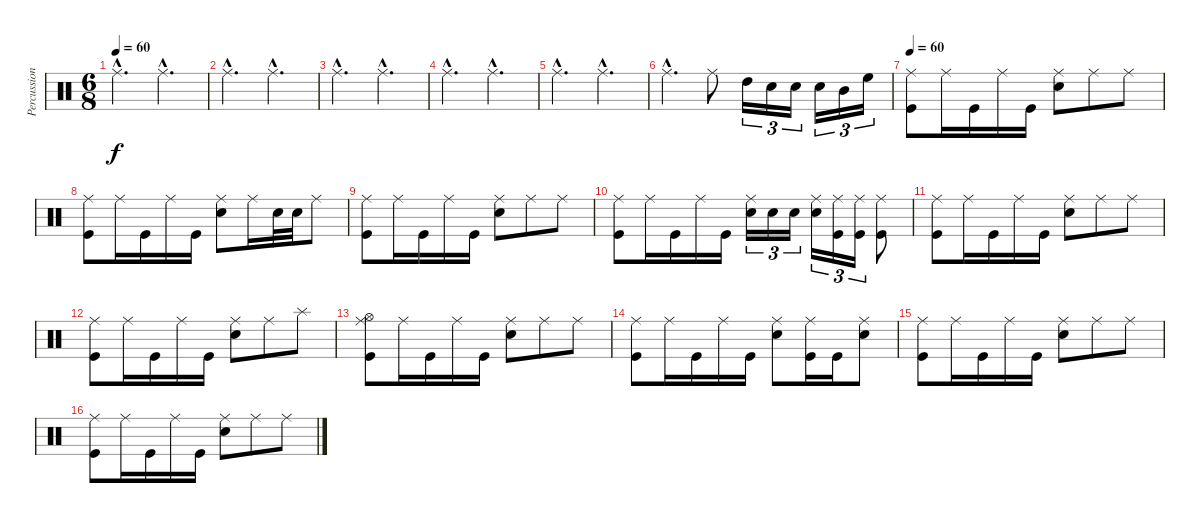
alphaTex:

\track ("Percussions" "Percussion") {instrument percussion}
\staff {score}
\articulation defaults
\ts (6 8)
\tempo 60
\clef neutral
\ks c "Ride (middle)"{hac}.4{d dy f} "Ride (middle)"{hac}.4{d}
|
"Ride (middle)"{hac}.4{d} "Ride (middle)"{hac}.4{d} |
"Ride (middle)"{hac}.4{d} "Ride (middle)"{hac}.4{d} |
"Ride (middle)"{hac}.4{d} "Ride (middle)"{hac}.4{d} |
"Ride (middle)"{hac}.4{d} "Ride (middle)"{hac}.4{d} |
"Ride (middle)"{hac}.4{d} "Ride (middle)".8 "High Tom (hit)".16{tu (3 2)} "Snare (hit) 2".16{tu (3 2)} "Snare (hit) 2".16{tu (3 2)} "Snare (hit) 2".16{tu (3 2)} "Mid Tom (hit)".16{tu (3 2)} "High Floor Tom (hit)".16{tu (3 2)} |
\tempo 60
("Ride (middle)" "Kick (hit)").8 "Ride (middle)".16 "Kick (hit)".16 "Ride (middle)".16 "Kick (hit)".16 ("Ride (middle)" "Snare (hit) 2").8 "Ride (middle)".8 "Ride (middle)".8 |
("Ride (middle)" "Kick (hit)").8 "Ride (middle)".16 "Kick (hit)".16 "Ride (middle)".16 "Kick (hit)".16 ("Ride (middle)" "Snare (hit) 2").8 "Ride (middle)".16 "Snare (hit) 2".32 "Snare (hit) 2".32 "Ride (middle)".8 |
("Ride (middle)" "Kick (hit)").8 "Ride (middle)".16 "Kick (hit)".16 "Ride (middle)".16 "Kick (hit)".16 ("Ride (middle)" "Snare (hit) 2").8 "Ride (middle)".8 "Ride (middle)".8 |
("Ride (middle)" "Kick (hit)").8 "Ride (middle)".16 "Kick (hit)".16 "Ride (middle)".16 "Kick (hit)".16 ("Ride (middle)" "Snare (hit) 2").16{tu (3 2)} "Snare (hit) 2".16{tu (3 2)} "Snare (hit) 2".16{tu (3 2)} ("Ride (middle)" "Snare (hit) 2").16{tu (3 2)} ("Ride (middle)" "Kick (hit)").16{tu (3 2)} ("Ride (middle)" "Kick (hit)").16{tu (3 2)} ("Ride (middle)" "Kick (hit)").8 |
("Ride (middle)" "Kick (hit)").8 "Ride (middle)".16 "Kick (hit)".16 "Ride (middle)".16 "Kick (hit)".16 ("Ride (middle)" "Snare (hit) 2").8 "Ride (middle)".8 "Ride (middle)".8 |
("Ride (middle)" "Kick (hit)").8 "Ride (middle)".16 "Kick (hit)".16 "Ride (middle)".16 "Kick (hit)".16 ("Ride (middle)" "Snare (hit) 2").8 "Ride (middle)".8 "Splash (hit)".8 |
("Hi-Hat (open)" "Ride (middle)" "Kick (hit)").8 "Ride (middle)".16 "Kick (hit)".16 "Ride (middle)".16 "Kick (hit)".16 ("Ride (middle)" "Snare (hit) 2").8 "Ride (middle)".8 "Ride (middle)".8 |
("Ride (middle)" "Kick (hit)").8 "Ride (middle)".16 "Kick (hit)".16 "Ride (middle)".16 "Kick (hit)".16 ("Ride (middle)" "Snare (hit) 2").8 ("Ride (middle)" "Kick (hit)").16 "Kick (hit)".16 ("Ride (middle)" "Snare (hit) 2").8 |
("Ride (middle)" "Kick (hit)").8 "Ride (middle)".16 "Kick (hit)".16 "Ride (middle)".16 "Kick (hit)".16 ("Ride (middle)" "Snare (hit) 2").8 "Ride (middle)".8 "Ride (middle)".8 |
("Ride (middle)" "Kick (hit)").8 "Ride (middle)".16 "Kick (hit)".16 "Ride (middle)".16 "Kick (hit)".16 ("Ride (middle)" "Snare (hit) 2").8 "Ride (middle)".8 "Ride (middle)".8
